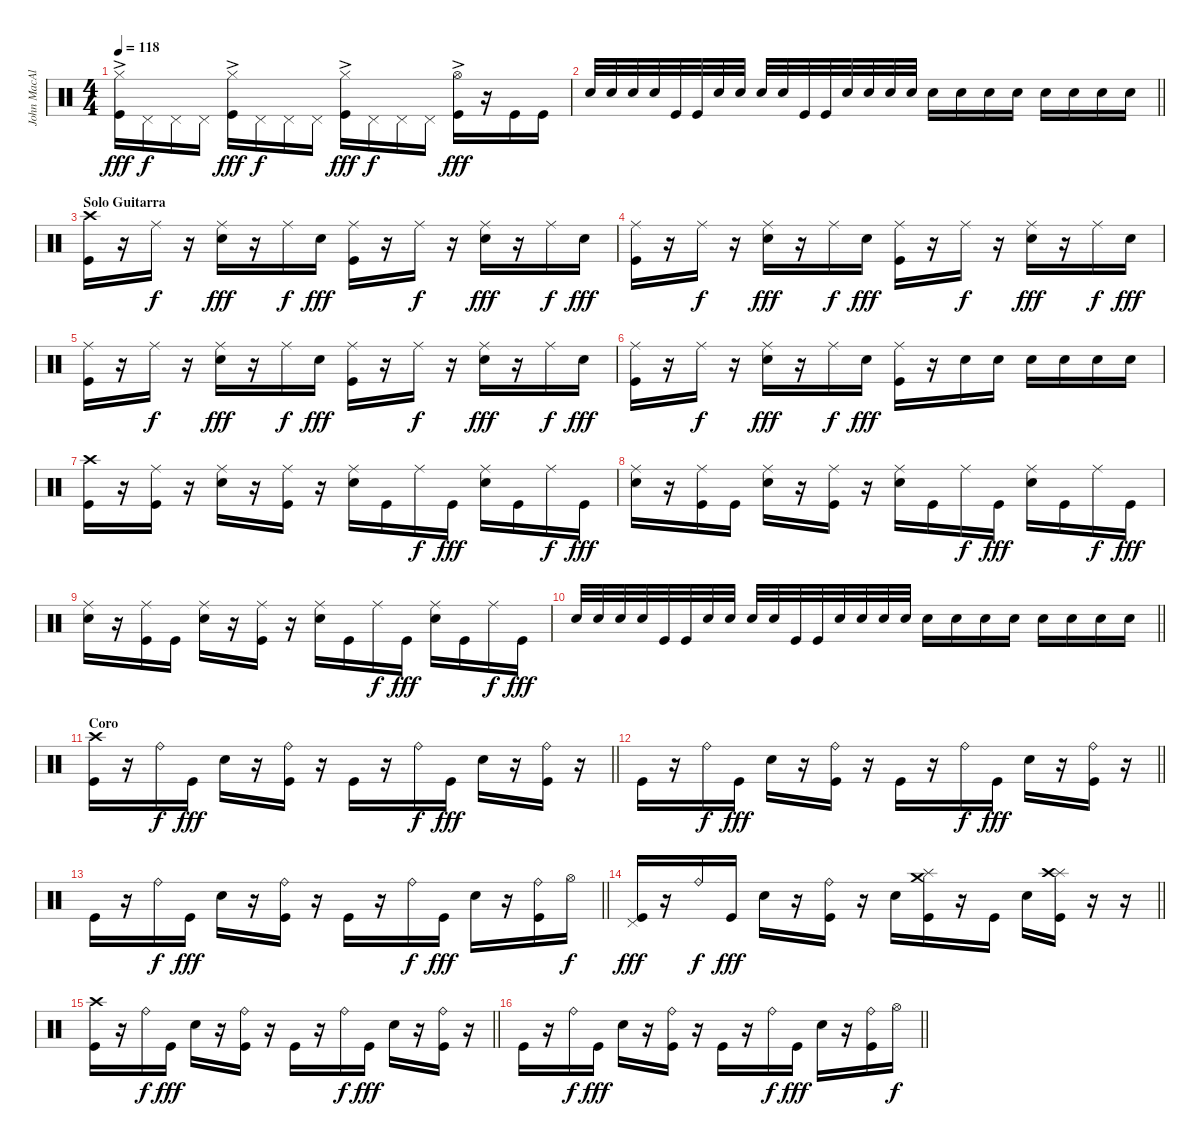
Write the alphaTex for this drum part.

\track ("John MacAluso" "John MacAl") {instrument percussion}
\staff {score}
\articulation defaults
\ts (4 4)
\tempo 118
\clef neutral
\ks c
("Hi-Hat (closed)"{ac} "Kick (hit)").16{dy fff} "Pedal Hi-Hat (hit)".16{dy f} "Pedal Hi-Hat (hit)".16 "Pedal Hi-Hat (hit)".16 ("Hi-Hat (closed)"{ac} "Kick (hit)").16{dy fff} "Pedal Hi-Hat (hit)".16{dy f} "Pedal Hi-Hat (hit)".16 "Pedal Hi-Hat (hit)".16 ("Hi-Hat (closed)"{ac} "Kick (hit)").16{dy fff} "Pedal Hi-Hat (hit)".16{dy f} "Pedal Hi-Hat (hit)".16 "Pedal Hi-Hat (hit)".16 ("Hi-Hat (open)"{ac} "Kick (hit)").16{dy fff} r.16 "Kick (hit)".16 "Kick (hit)".16 |
\barLineRight lightlight "Electric Snare (hit)".32 "Electric Snare (hit)".32 "Electric Snare (hit)".32 "Electric Snare (hit)".32 "Kick (hit)".32 "Kick (hit)".32 "Electric Snare (hit)".32 "Electric Snare (hit)".32 "Electric Snare (hit)".32 "Electric Snare (hit)".32 "Kick (hit)".32 "Kick (hit)".32 "Electric Snare (hit)".32 "Electric Snare (hit)".32 "Electric Snare (hit)".32 "Electric Snare (hit)".32 "Electric Snare (hit)".16 "Electric Snare (hit)".16 "Electric Snare (hit)".16 "Electric Snare (hit)".16 "Electric Snare (hit)".16 "Electric Snare (hit)".16 "Electric Snare (hit)".16 "Electric Snare (hit)".16
|
\section ("" "Solo Guitarra")
("Crash high (hit)" "Kick (hit)").16 r.16 "Ride (middle)".16{dy f} r.16 ("Ride (middle)" "Electric Snare (hit)").16{dy fff} r.16 "Ride (middle)".16{dy f} "Electric Snare (hit)".16{dy fff} ("Ride (middle)" "Kick (hit)").16 r.16 "Ride (middle)".16{dy f} r.16 ("Ride (middle)" "Electric Snare (hit)").16{dy fff} r.16 "Ride (middle)".16{dy f} "Electric Snare (hit)".16{dy fff} |
("Ride (middle)" "Kick (hit)").16 r.16 "Ride (middle)".16{dy f} r.16 ("Ride (middle)" "Electric Snare (hit)").16{dy fff} r.16 "Ride (middle)".16{dy f} "Electric Snare (hit)".16{dy fff} ("Ride (middle)" "Kick (hit)").16 r.16 "Ride (middle)".16{dy f} r.16 ("Ride (middle)" "Electric Snare (hit)").16{dy fff} r.16 "Ride (middle)".16{dy f} "Electric Snare (hit)".16{dy fff} |
("Ride (middle)" "Kick (hit)").16 r.16 "Ride (middle)".16{dy f} r.16 ("Ride (middle)" "Electric Snare (hit)").16{dy fff} r.16 "Ride (middle)".16{dy f} "Electric Snare (hit)".16{dy fff} ("Ride (middle)" "Kick (hit)").16 r.16 "Ride (middle)".16{dy f} r.16 ("Ride (middle)" "Electric Snare (hit)").16{dy fff} r.16 "Ride (middle)".16{dy f} "Electric Snare (hit)".16{dy fff} |
("Ride (middle)" "Kick (hit)").16 r.16 "Ride (middle)".16{dy f} r.16 ("Ride (middle)" "Electric Snare (hit)").16{dy fff} r.16 "Ride (middle)".16{dy f} "Electric Snare (hit)".16{dy fff} ("Ride (middle)" "Kick (hit)").16 r.16 "Electric Snare (hit)".16 "Electric Snare (hit)".16 "Electric Snare (hit)".16 "Electric Snare (hit)".16 "Electric Snare (hit)".16 "Electric Snare (hit)".16 |
("Crash high (hit)" "Kick (hit)").16 r.16 ("Ride (middle)" "Kick (hit)").16 r.16 ("Ride (middle)" "Electric Snare (hit)").16 r.16 ("Ride (middle)" "Kick (hit)").16 r.16 ("Ride (middle)" "Electric Snare (hit)").16 "Kick (hit)".16 "Ride (middle)".16{dy f} "Kick (hit)".16{dy fff} ("Ride (middle)" "Electric Snare (hit)").16 "Kick (hit)".16 "Ride (middle)".16{dy f} "Kick (hit)".16{dy fff} |
("Ride (middle)" "Electric Snare (hit)").16 r.16 ("Ride (middle)" "Kick (hit)").16 "Kick (hit)".16 ("Ride (middle)" "Electric Snare (hit)").16 r.16 ("Ride (middle)" "Kick (hit)").16 r.16 ("Ride (middle)" "Electric Snare (hit)").16 "Kick (hit)".16 "Ride (middle)".16{dy f} "Kick (hit)".16{dy fff} ("Ride (middle)" "Electric Snare (hit)").16 "Kick (hit)".16 "Ride (middle)".16{dy f} "Kick (hit)".16{dy fff} |
("Ride (middle)" "Electric Snare (hit)").16 r.16 ("Ride (middle)" "Kick (hit)").16 "Kick (hit)".16 ("Ride (middle)" "Electric Snare (hit)").16 r.16 ("Ride (middle)" "Kick (hit)").16 r.16 ("Ride (middle)" "Electric Snare (hit)").16 "Kick (hit)".16 "Ride (middle)".16{dy f} "Kick (hit)".16{dy fff} ("Ride (middle)" "Electric Snare (hit)").16 "Kick (hit)".16 "Ride (middle)".16{dy f} "Kick (hit)".16{dy fff} |
\barLineRight lightlight "Electric Snare (hit)".32 "Electric Snare (hit)".32 "Electric Snare (hit)".32 "Electric Snare (hit)".32 "Kick (hit)".32 "Kick (hit)".32 "Electric Snare (hit)".32 "Electric Snare (hit)".32 "Electric Snare (hit)".32 "Electric Snare (hit)".32 "Kick (hit)".32 "Kick (hit)".32 "Electric Snare (hit)".32 "Electric Snare (hit)".32 "Electric Snare (hit)".32 "Electric Snare (hit)".32 "Electric Snare (hit)".16 "Electric Snare (hit)".16 "Electric Snare (hit)".16 "Electric Snare (hit)".16 "Electric Snare (hit)".16 "Electric Snare (hit)".16 "Electric Snare (hit)".16 "Electric Snare (hit)".16
|
\section ("" "Coro")
\barLineRight lightlight
("Crash high (hit)" "Kick (hit)").16 r.16 "Ride (bell)".16{dy f} "Kick (hit)".16{dy fff} "Electric Snare (hit)".16 r.16 ("Ride (bell)" "Kick (hit)").16 r.16 "Kick (hit)".16 r.16 "Ride (bell)".16{dy f} "Kick (hit)".16{dy fff} "Electric Snare (hit)".16 r.16 ("Ride (bell)" "Kick (hit)").16 r.16 |
\barLineRight lightlight "Kick (hit)".16
r.16 "Ride (bell)".16{dy f} "Kick (hit)".16{dy fff} "Electric Snare (hit)".16 r.16 ("Ride (bell)" "Kick (hit)").16 r.16 "Kick (hit)".16 r.16 "Ride (bell)".16{dy f} "Kick (hit)".16{dy fff} "Electric Snare (hit)".16 r.16 ("Ride (bell)" "Kick (hit)").16 r.16 |
\barLineRight lightlight "Kick (hit)".16
r.16 "Ride (bell)".16{dy f} "Kick (hit)".16{dy fff} "Electric Snare (hit)".16 r.16 ("Ride (bell)" "Kick (hit)").16 r.16 "Kick (hit)".16 r.16 "Ride (bell)".16{dy f} "Kick (hit)".16{dy fff} "Electric Snare (hit)".16 r.16 ("Ride (bell)" "Kick (hit)").16 "Hi-Hat (open)".16{dy f} |
\barLineRight lightlight
("Pedal Hi-Hat (hit)" "Kick (hit)").16{dy fff} r.16 "Ride (bell)".16{dy f} "Kick (hit)".16{dy fff} "Electric Snare (hit)".16 r.16 ("Ride (bell)" "Kick (hit)").16 r.16 "Electric Snare (hit)".16 ("Splash (hit)" "Crash medium (hit)" "Kick (hit)").16 r.16 "Kick (hit)".16 "Electric Snare (hit)".16 ("Splash (hit)" "Crash high (hit)" "Kick (hit)").16 r.16 r.16 |
\barLineRight lightlight
("Crash high (hit)" "Kick (hit)").16 r.16 "Ride (bell)".16{dy f} "Kick (hit)".16{dy fff} "Electric Snare (hit)".16 r.16 ("Ride (bell)" "Kick (hit)").16 r.16 "Kick (hit)".16 r.16 "Ride (bell)".16{dy f} "Kick (hit)".16{dy fff} "Electric Snare (hit)".16 r.16 ("Ride (bell)" "Kick (hit)").16 r.16 |
\barLineRight lightlight "Kick (hit)".16
r.16 "Ride (bell)".16{dy f} "Kick (hit)".16{dy fff} "Electric Snare (hit)".16 r.16 ("Ride (bell)" "Kick (hit)").16 r.16 "Kick (hit)".16 r.16 "Ride (bell)".16{dy f} "Kick (hit)".16{dy fff} "Electric Snare (hit)".16 r.16 ("Ride (bell)" "Kick (hit)").16 "Hi-Hat (open)".16{dy f}
